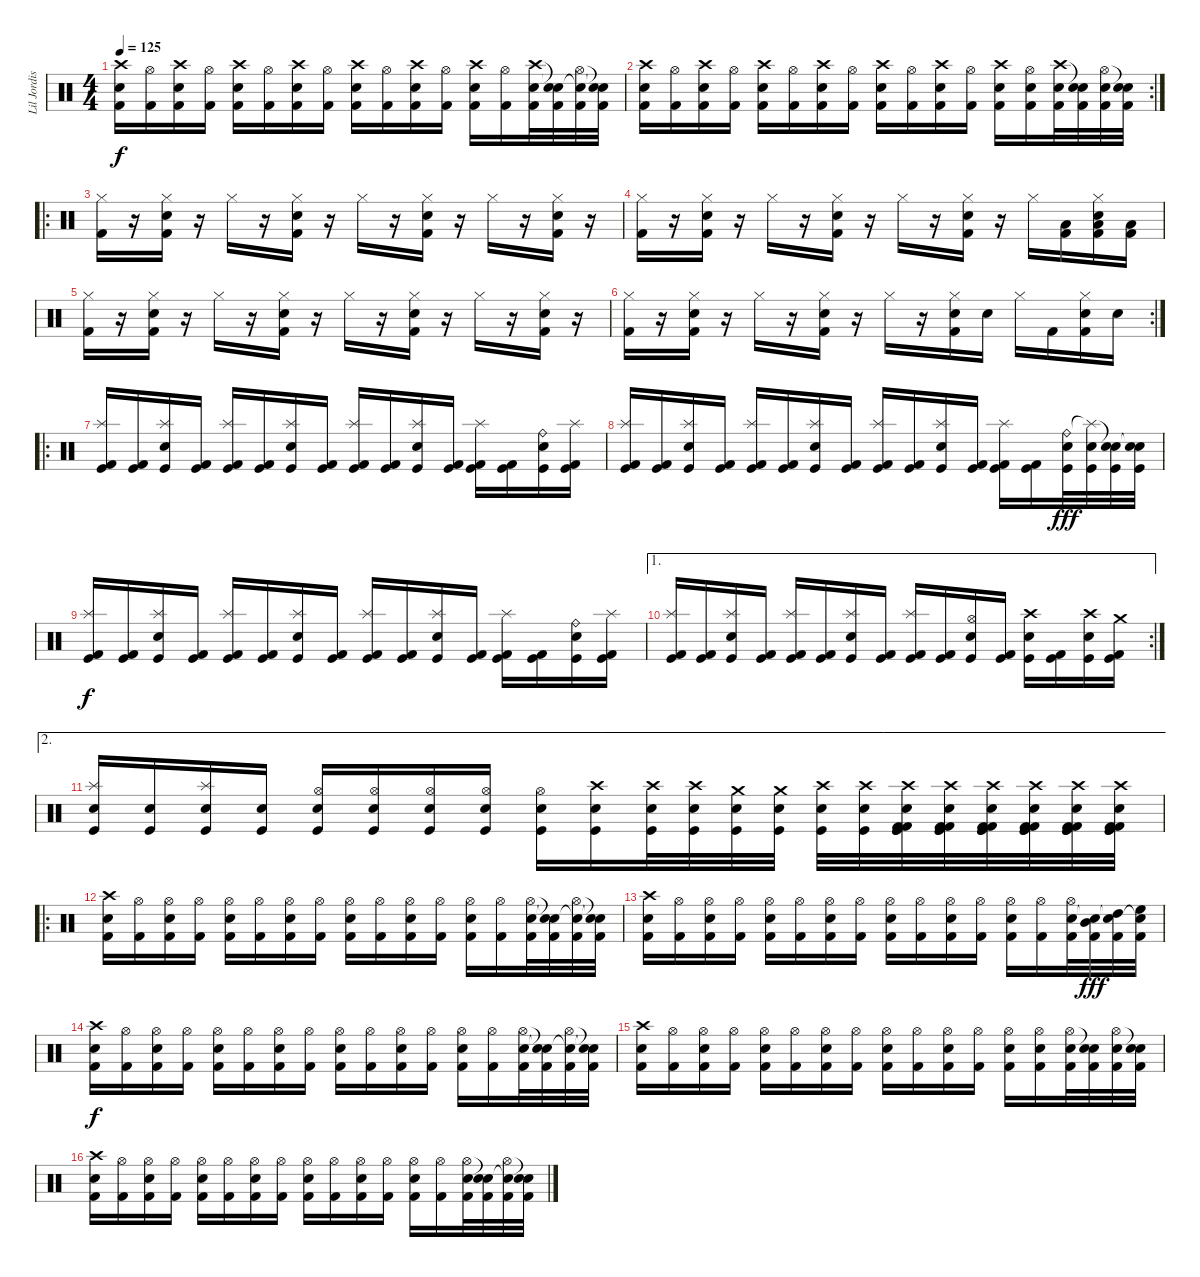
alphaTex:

\track ("Lil Jordison" "Lil Jordis") {instrument percussion}
\staff {score}
\articulation defaults
\ts (4 4)
\tempo 125
\clef neutral
\ks c
("Crash high (hit)" "Electric Snare (hit)" "Kick (hit) 2").16{dy f} ("Hi-Hat (open)" "Kick (hit) 2").16 ("Crash high (hit)" "Electric Snare (hit)" "Kick (hit) 2").16 ("Hi-Hat (open)" "Kick (hit) 2").16 ("Crash high (hit)" "Electric Snare (hit)" "Kick (hit) 2").16 ("Hi-Hat (open)" "Kick (hit) 2").16 ("Crash high (hit)" "Electric Snare (hit)" "Kick (hit) 2").16 ("Hi-Hat (open)" "Kick (hit) 2").16 ("Crash high (hit)" "Electric Snare (hit)" "Kick (hit) 2").16 ("Hi-Hat (open)" "Kick (hit) 2").16 ("Crash high (hit)" "Electric Snare (hit)" "Kick (hit) 2").16 ("Hi-Hat (open)" "Kick (hit) 2").16 ("Crash high (hit)" "Electric Snare (hit)" "Kick (hit) 2").16 ("Hi-Hat (open)" "Kick (hit) 2").16 ("Crash high (hit)" "Electric Snare (hit)" "Kick (hit) 2").32 ("Snare (hit)"{t} "Snare (hit)"{t} "Kick (hit) 2").32 ("Hi-Hat (open)" "Snare (hit)"{t} "Kick (hit) 2").32 ("Snare (hit)"{t} "Snare (hit)"{t} "Kick (hit) 2").32 |
\rc 2
("Crash high (hit)" "Electric Snare (hit)" "Kick (hit) 2").16 ("Hi-Hat (open)" "Kick (hit) 2").16 ("Crash high (hit)" "Electric Snare (hit)" "Kick (hit) 2").16 ("Hi-Hat (open)" "Kick (hit) 2").16 ("Crash high (hit)" "Electric Snare (hit)" "Kick (hit) 2").16 ("Hi-Hat (open)" "Kick (hit) 2").16 ("Crash high (hit)" "Electric Snare (hit)" "Kick (hit) 2").16 ("Hi-Hat (open)" "Kick (hit) 2").16 ("Crash high (hit)" "Electric Snare (hit)" "Kick (hit) 2").16 ("Hi-Hat (open)" "Kick (hit) 2").16 ("Crash high (hit)" "Electric Snare (hit)" "Kick (hit) 2").16 ("Hi-Hat (open)" "Kick (hit) 2").16 ("Crash high (hit)" "Electric Snare (hit)" "Kick (hit) 2").16 ("Hi-Hat (open)" "Electric Snare (hit)" "Kick (hit) 2").16 ("Crash high (hit)" "Electric Snare (hit)" "Kick (hit) 2").32 ("Snare (hit)"{t} "Electric Snare (hit)" "Kick (hit) 2").32 ("Hi-Hat (open)" "Electric Snare (hit)" "Kick (hit) 2").32 ("Snare (hit)"{t} "Electric Snare (hit)" "Kick (hit) 2").32 |
\ro
("Hi-Hat (closed)" "Kick (hit) 2").16 r.16 ("Hi-Hat (closed)" "Electric Snare (hit)" "Kick (hit) 2").16 r.16 "Hi-Hat (closed)".16 r.16 ("Hi-Hat (closed)" "Electric Snare (hit)" "Kick (hit) 2").16 r.16 "Hi-Hat (closed)".16 r.16 ("Hi-Hat (closed)" "Electric Snare (hit)" "Kick (hit) 2").16 r.16 "Hi-Hat (closed)".16 r.16 ("Hi-Hat (closed)" "Electric Snare (hit)" "Kick (hit) 2").16 r.16 |
("Hi-Hat (closed)" "Kick (hit) 2").16 r.16 ("Hi-Hat (closed)" "Electric Snare (hit)" "Kick (hit) 2").16 r.16 "Hi-Hat (closed)".16 r.16 ("Hi-Hat (closed)" "Electric Snare (hit)" "Kick (hit) 2").16 r.16 "Hi-Hat (closed)".16 r.16 ("Hi-Hat (closed)" "Electric Snare (hit)" "Kick (hit) 2").16 r.16 "Hi-Hat (closed)".16 ("Low Floor Tom (hit)" "Kick (hit) 2").16 ("Hi-Hat (closed)" "Low Floor Tom (hit)" "Electric Snare (hit)" "Kick (hit) 2").16 ("Low Floor Tom (hit)" "Kick (hit) 2").16 |
("Hi-Hat (closed)" "Kick (hit) 2").16 r.16 ("Hi-Hat (closed)" "Electric Snare (hit)" "Kick (hit) 2").16 r.16 "Hi-Hat (closed)".16 r.16 ("Hi-Hat (closed)" "Electric Snare (hit)" "Kick (hit) 2").16 r.16 "Hi-Hat (closed)".16 r.16 ("Hi-Hat (closed)" "Electric Snare (hit)" "Kick (hit) 2").16 r.16 "Hi-Hat (closed)".16 r.16 ("Hi-Hat (closed)" "Electric Snare (hit)" "Kick (hit) 2").16 r.16 |
\rc 2
("Hi-Hat (closed)" "Kick (hit) 2").16 r.16 ("Hi-Hat (closed)" "Electric Snare (hit)" "Kick (hit) 2").16 r.16 "Hi-Hat (closed)".16 r.16 ("Hi-Hat (closed)" "Electric Snare (hit)" "Kick (hit) 2").16 r.16 "Hi-Hat (closed)".16 r.16 ("Hi-Hat (closed)" "Electric Snare (hit)" "Kick (hit) 2").16 "Electric Snare (hit)".16 "Hi-Hat (closed)".16 "Kick (hit) 2".16 ("Hi-Hat (closed)" "Electric Snare (hit)" "Kick (hit) 2").16 "Electric Snare (hit)".16 |
\ro
("Splash (hit)" "Kick (hit)" "Kick (hit) 2").16 ("Kick (hit)" "Kick (hit) 2").16 ("Splash (hit)" "Kick (hit)" "Electric Snare (hit)").16 ("Kick (hit)" "Kick (hit) 2").16 ("Splash (hit)" "Kick (hit)" "Kick (hit) 2").16 ("Kick (hit)" "Kick (hit) 2").16 ("Splash (hit)" "Kick (hit)" "Electric Snare (hit)").16 ("Kick (hit)" "Kick (hit) 2").16 ("Splash (hit)" "Kick (hit)" "Kick (hit) 2").16 ("Kick (hit)" "Kick (hit) 2").16 ("Splash (hit)" "Kick (hit)" "Electric Snare (hit)").16 ("Kick (hit)" "Kick (hit) 2").16 ("Splash (hit)" "Kick (hit)" "Kick (hit) 2").16 ("Kick (hit)" "Kick (hit) 2").16 ("Ride (bell)" "Kick (hit)" "Electric Snare (hit)").16 ("Splash (hit)" "Kick (hit)" "Kick (hit) 2").16 |
("Splash (hit)" "Kick (hit)" "Kick (hit) 2").16 ("Kick (hit)" "Kick (hit) 2").16 ("Splash (hit)" "Kick (hit)" "Electric Snare (hit)").16 ("Kick (hit)" "Kick (hit) 2").16 ("Splash (hit)" "Kick (hit)" "Kick (hit) 2").16 ("Kick (hit)" "Kick (hit) 2").16 ("Splash (hit)" "Kick (hit)" "Electric Snare (hit)").16 ("Kick (hit)" "Kick (hit) 2").16 ("Splash (hit)" "Kick (hit)" "Kick (hit) 2").16 ("Kick (hit)" "Kick (hit) 2").16 ("Splash (hit)" "Kick (hit)" "Electric Snare (hit)").16 ("Kick (hit)" "Kick (hit) 2").16 ("Splash (hit)" "Kick (hit)" "Kick (hit) 2").16 ("Kick (hit)" "Kick (hit) 2").16 ("Ride (bell)" "Kick (hit)" "Electric Snare (hit)").32{dy fff} ("Splash (hit)"{t} "Kick (hit)" "Electric Snare (hit)").32 ("Snare (hit)"{t} "Kick (hit)" "Electric Snare (hit)").32 ("Snare (hit)"{t} "Kick (hit)" "Electric Snare (hit)").32 |
("Splash (hit)" "Kick (hit)" "Kick (hit) 2").16{dy f} ("Kick (hit)" "Kick (hit) 2").16 ("Splash (hit)" "Kick (hit)" "Electric Snare (hit)").16 ("Kick (hit)" "Kick (hit) 2").16 ("Splash (hit)" "Kick (hit)" "Kick (hit) 2").16 ("Kick (hit)" "Kick (hit) 2").16 ("Splash (hit)" "Kick (hit)" "Electric Snare (hit)").16 ("Kick (hit)" "Kick (hit) 2").16 ("Splash (hit)" "Kick (hit)" "Kick (hit) 2").16 ("Kick (hit)" "Kick (hit) 2").16 ("Splash (hit)" "Kick (hit)" "Electric Snare (hit)").16 ("Kick (hit)" "Kick (hit) 2").16 ("Splash (hit)" "Kick (hit)" "Kick (hit) 2").16 ("Kick (hit)" "Kick (hit) 2").16 ("Ride (bell)" "Kick (hit)" "Electric Snare (hit)").16 ("Splash (hit)" "Kick (hit)" "Kick (hit) 2").16 |
\ae 1
\rc 2
("Splash (hit)" "Kick (hit)" "Kick (hit) 2").16 ("Kick (hit)" "Kick (hit) 2").16 ("Splash (hit)" "Kick (hit)" "Electric Snare (hit)").16 ("Kick (hit)" "Kick (hit) 2").16 ("Splash (hit)" "Kick (hit)" "Kick (hit) 2").16 ("Kick (hit)" "Kick (hit) 2").16 ("Splash (hit)" "Kick (hit)" "Electric Snare (hit)").16 ("Kick (hit)" "Kick (hit) 2").16 ("Splash (hit)" "Kick (hit)" "Kick (hit) 2").16 ("Kick (hit)" "Kick (hit) 2").16 ("Hi-Hat (open)" "Kick (hit)" "Electric Snare (hit)").16 ("Kick (hit)" "Kick (hit) 2").16 ("Crash high (hit)" "Kick (hit)" "Electric Snare (hit)").16 ("Kick (hit)" "Kick (hit) 2").16 ("Crash high (hit)" "Kick (hit)" "Electric Snare (hit)").16 ("Crash medium (hit)" "Kick (hit)" "Kick (hit) 2").16 |
\ae 2
("Splash (hit)" "Kick (hit)" "Electric Snare (hit)").16 ("Kick (hit)" "Electric Snare (hit)").16 ("Splash (hit)" "Kick (hit)" "Electric Snare (hit)").16 ("Kick (hit)" "Electric Snare (hit)").16 ("Hi-Hat (open)" "Kick (hit)" "Electric Snare (hit)").16 ("Hi-Hat (open)" "Kick (hit)" "Electric Snare (hit)").16 ("Hi-Hat (open)" "Kick (hit)" "Electric Snare (hit)").16 ("Hi-Hat (open)" "Kick (hit)" "Electric Snare (hit)").16 ("Hi-Hat (open)" "Kick (hit)" "Electric Snare (hit)").16 ("Crash high (hit)" "Kick (hit)" "Electric Snare (hit)").16 ("Crash high (hit)" "Kick (hit)" "Electric Snare (hit)").32 ("Crash high (hit)" "Kick (hit)" "Electric Snare (hit)").32 ("Crash medium (hit)" "Kick (hit)" "Electric Snare (hit)").32 ("Crash medium (hit)" "Kick (hit)" "Electric Snare (hit)").32 ("Crash high (hit)" "Kick (hit)" "Electric Snare (hit)").32 ("Crash high (hit)" "Kick (hit)" "Electric Snare (hit)").32 ("Crash high (hit)" "Kick (hit) 2" "Kick (hit)" "Kick (hit) 2" "Kick (hit)" "Electric Snare (hit)").32 ("Crash high (hit)" "Kick (hit) 2" "Kick (hit)" "Kick (hit) 2" "Kick (hit)" "Electric Snare (hit)").32 ("Crash high (hit)" "Kick (hit) 2" "Kick (hit)" "Kick (hit) 2" "Kick (hit)" "Electric Snare (hit)").32 ("Crash high (hit)" "Kick (hit) 2" "Kick (hit)" "Kick (hit) 2" "Kick (hit)" "Electric Snare (hit)").32 ("Crash high (hit)" "Kick (hit) 2" "Kick (hit)" "Kick (hit) 2" "Kick (hit)" "Electric Snare (hit)").32 ("Crash high (hit)" "Kick (hit) 2" "Kick (hit)" "Kick (hit) 2" "Kick (hit)" "Electric Snare (hit)").32 |
\ro
("Crash high (hit)" "Electric Snare (hit)" "Kick (hit) 2").16 ("Hi-Hat (open)" "Kick (hit) 2").16 ("Hi-Hat (open)" "Electric Snare (hit)" "Kick (hit) 2").16 ("Hi-Hat (open)" "Kick (hit) 2").16 ("Hi-Hat (open)" "Electric Snare (hit)" "Kick (hit) 2").16 ("Hi-Hat (open)" "Kick (hit) 2").16 ("Hi-Hat (open)" "Electric Snare (hit)" "Kick (hit) 2").16 ("Hi-Hat (open)" "Kick (hit) 2").16 ("Hi-Hat (open)" "Electric Snare (hit)" "Kick (hit) 2").16 ("Hi-Hat (open)" "Kick (hit) 2").16 ("Hi-Hat (open)" "Electric Snare (hit)" "Kick (hit) 2").16 ("Hi-Hat (open)" "Kick (hit) 2").16 ("Hi-Hat (open)" "Electric Snare (hit)" "Kick (hit) 2").16 ("Hi-Hat (open)" "Kick (hit) 2").16 ("Hi-Hat (open)" "Electric Snare (hit)" "Kick (hit) 2").32 ("Snare (hit)"{t} "Snare (hit)"{t} "Kick (hit) 2").32 ("Hi-Hat (open)" "Snare (hit)"{t} "Kick (hit) 2").32 ("Snare (hit)"{t} "Snare (hit)"{t} "Kick (hit) 2").32 |
("Crash high (hit)" "Electric Snare (hit)" "Kick (hit) 2").16 ("Hi-Hat (open)" "Kick (hit) 2").16 ("Hi-Hat (open)" "Electric Snare (hit)" "Kick (hit) 2").16 ("Hi-Hat (open)" "Kick (hit) 2").16 ("Hi-Hat (open)" "Electric Snare (hit)" "Kick (hit) 2").16 ("Hi-Hat (open)" "Kick (hit) 2").16 ("Hi-Hat (open)" "Electric Snare (hit)" "Kick (hit) 2").16 ("Hi-Hat (open)" "Kick (hit) 2").16 ("Hi-Hat (open)" "Electric Snare (hit)" "Kick (hit) 2").16 ("Hi-Hat (open)" "Kick (hit) 2").16 ("Hi-Hat (open)" "Electric Snare (hit)" "Kick (hit) 2").16 ("Hi-Hat (open)" "Kick (hit) 2").16 ("Hi-Hat (open)" "Electric Snare (hit)" "Kick (hit) 2").16 ("Hi-Hat (open)" "Kick (hit) 2").16 ("Hi-Hat (open)" "Electric Snare (hit)" "Kick (hit) 2").32 ("Mid Tom (hit)" "Snare (hit)"{t} "Kick (hit) 2").32{dy fff} ("High Tom (hit)" "Snare (hit)"{t} "Kick (hit) 2").32 ("High Floor Tom (hit)" "Snare (hit)"{t} "Kick (hit) 2").32 |
("Crash high (hit)" "Electric Snare (hit)" "Kick (hit) 2").16{dy f} ("Hi-Hat (open)" "Kick (hit) 2").16 ("Hi-Hat (open)" "Electric Snare (hit)" "Kick (hit) 2").16 ("Hi-Hat (open)" "Kick (hit) 2").16 ("Hi-Hat (open)" "Electric Snare (hit)" "Kick (hit) 2").16 ("Hi-Hat (open)" "Kick (hit) 2").16 ("Hi-Hat (open)" "Electric Snare (hit)" "Kick (hit) 2").16 ("Hi-Hat (open)" "Kick (hit) 2").16 ("Hi-Hat (open)" "Electric Snare (hit)" "Kick (hit) 2").16 ("Hi-Hat (open)" "Kick (hit) 2").16 ("Hi-Hat (open)" "Electric Snare (hit)" "Kick (hit) 2").16 ("Hi-Hat (open)" "Kick (hit) 2").16 ("Hi-Hat (open)" "Electric Snare (hit)" "Kick (hit) 2").16 ("Hi-Hat (open)" "Kick (hit) 2").16 ("Hi-Hat (open)" "Electric Snare (hit)" "Kick (hit) 2").32 ("Snare (hit)"{t} "Snare (hit)"{t} "Kick (hit) 2").32 ("Hi-Hat (open)" "Snare (hit)"{t} "Kick (hit) 2").32 ("Snare (hit)"{t} "Snare (hit)"{t} "Kick (hit) 2").32 |
("Crash high (hit)" "Electric Snare (hit)" "Kick (hit) 2").16 ("Hi-Hat (open)" "Kick (hit) 2").16 ("Hi-Hat (open)" "Electric Snare (hit)" "Kick (hit) 2").16 ("Hi-Hat (open)" "Kick (hit) 2").16 ("Hi-Hat (open)" "Electric Snare (hit)" "Kick (hit) 2").16 ("Hi-Hat (open)" "Kick (hit) 2").16 ("Hi-Hat (open)" "Electric Snare (hit)" "Kick (hit) 2").16 ("Hi-Hat (open)" "Kick (hit) 2").16 ("Hi-Hat (open)" "Electric Snare (hit)" "Kick (hit) 2").16 ("Hi-Hat (open)" "Kick (hit) 2").16 ("Hi-Hat (open)" "Electric Snare (hit)" "Kick (hit) 2").16 ("Hi-Hat (open)" "Kick (hit) 2").16 ("Hi-Hat (open)" "Electric Snare (hit)" "Kick (hit) 2").16 ("Hi-Hat (open)" "Electric Snare (hit)" "Kick (hit) 2").16 ("Hi-Hat (open)" "Electric Snare (hit)" "Kick (hit) 2").32 ("Snare (hit)"{t} "Electric Snare (hit)" "Kick (hit) 2").32 ("Hi-Hat (open)" "Electric Snare (hit)" "Kick (hit) 2").32 ("Snare (hit)"{t} "Electric Snare (hit)" "Kick (hit) 2").32 |
("Crash high (hit)" "Electric Snare (hit)" "Kick (hit) 2").16 ("Hi-Hat (open)" "Kick (hit) 2").16 ("Hi-Hat (open)" "Electric Snare (hit)" "Kick (hit) 2").16 ("Hi-Hat (open)" "Kick (hit) 2").16 ("Hi-Hat (open)" "Electric Snare (hit)" "Kick (hit) 2").16 ("Hi-Hat (open)" "Kick (hit) 2").16 ("Hi-Hat (open)" "Electric Snare (hit)" "Kick (hit) 2").16 ("Hi-Hat (open)" "Kick (hit) 2").16 ("Hi-Hat (open)" "Electric Snare (hit)" "Kick (hit) 2").16 ("Hi-Hat (open)" "Kick (hit) 2").16 ("Hi-Hat (open)" "Electric Snare (hit)" "Kick (hit) 2").16 ("Hi-Hat (open)" "Kick (hit) 2").16 ("Hi-Hat (open)" "Electric Snare (hit)" "Kick (hit) 2").16 ("Hi-Hat (open)" "Kick (hit) 2").16 ("Hi-Hat (open)" "Electric Snare (hit)" "Kick (hit) 2").32 ("Snare (hit)"{t} "Snare (hit)"{t} "Kick (hit) 2").32 ("Hi-Hat (open)" "Snare (hit)"{t} "Kick (hit) 2").32 ("Snare (hit)"{t} "Snare (hit)"{t} "Kick (hit) 2").32
